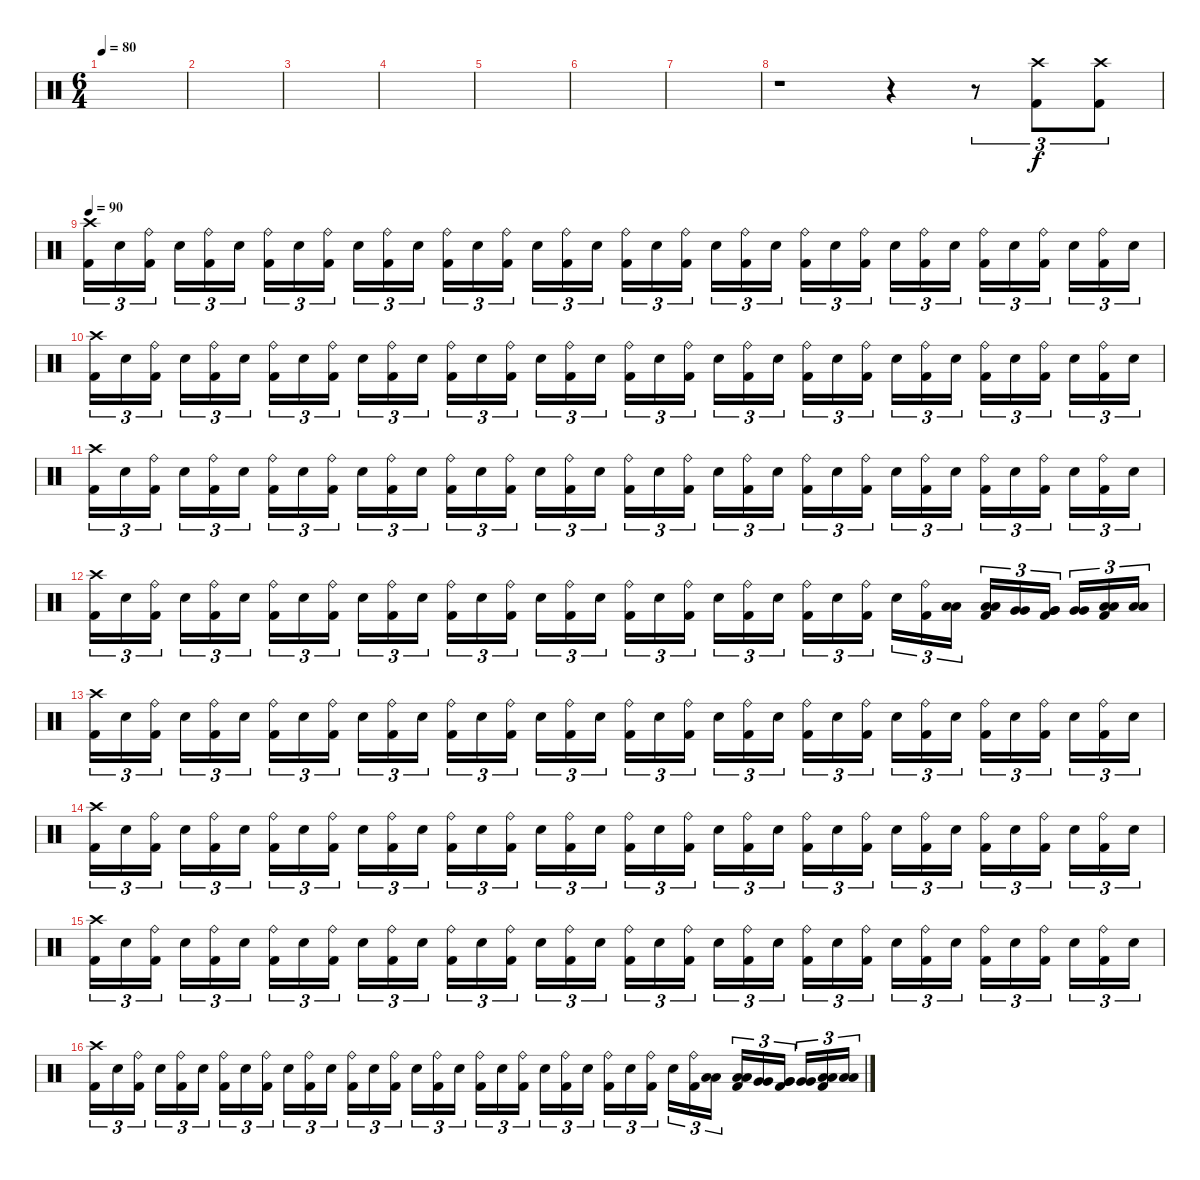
\track "" {instrument percussion}
\staff {score}
\articulation defaults
\ts (6 4)
\tempo 80
\clef neutral
\ks c
|
|
|
|
|
|
|
r.1 r.4 r.8{tu (3 2)} ("Crash high (hit)" "Kick (hit) 2").8{tu (3 2)} ("Crash high (hit)" "Kick (hit) 2").8{tu (3 2)} |
\tempo 90
("Crash high (hit)" "Kick (hit) 2").16{tu (3 2)} "Electric Snare (hit)".16{tu (3 2)} ("Ride (bell)" "Kick (hit) 2").16{tu (3 2)} "Electric Snare (hit)".16{tu (3 2)} ("Ride (bell)" "Kick (hit) 2").16{tu (3 2)} "Electric Snare (hit)".16{tu (3 2)} ("Ride (bell)" "Kick (hit) 2").16{tu (3 2)} "Electric Snare (hit)".16{tu (3 2)} ("Ride (bell)" "Kick (hit) 2").16{tu (3 2)} "Electric Snare (hit)".16{tu (3 2)} ("Ride (bell)" "Kick (hit) 2").16{tu (3 2)} "Electric Snare (hit)".16{tu (3 2)} ("Ride (bell)" "Kick (hit) 2").16{tu (3 2)} "Electric Snare (hit)".16{tu (3 2)} ("Ride (bell)" "Kick (hit) 2").16{tu (3 2)} "Electric Snare (hit)".16{tu (3 2)} ("Ride (bell)" "Kick (hit) 2").16{tu (3 2)} "Electric Snare (hit)".16{tu (3 2)} ("Ride (bell)" "Kick (hit) 2").16{tu (3 2)} "Electric Snare (hit)".16{tu (3 2)} ("Ride (bell)" "Kick (hit) 2").16{tu (3 2)} "Electric Snare (hit)".16{tu (3 2)} ("Ride (bell)" "Kick (hit) 2").16{tu (3 2)} "Electric Snare (hit)".16{tu (3 2)} ("Ride (bell)" "Kick (hit) 2").16{tu (3 2)} "Electric Snare (hit)".16{tu (3 2)} ("Ride (bell)" "Kick (hit) 2").16{tu (3 2)} "Electric Snare (hit)".16{tu (3 2)} ("Ride (bell)" "Kick (hit) 2").16{tu (3 2)} "Electric Snare (hit)".16{tu (3 2)} ("Ride (bell)" "Kick (hit) 2").16{tu (3 2)} "Electric Snare (hit)".16{tu (3 2)} ("Ride (bell)" "Kick (hit) 2").16{tu (3 2)} "Electric Snare (hit)".16{tu (3 2)} ("Ride (bell)" "Kick (hit) 2").16{tu (3 2)} "Electric Snare (hit)".16{tu (3 2)} |
("Crash high (hit)" "Kick (hit) 2").16{tu (3 2)} "Electric Snare (hit)".16{tu (3 2)} ("Ride (bell)" "Kick (hit) 2").16{tu (3 2)} "Electric Snare (hit)".16{tu (3 2)} ("Ride (bell)" "Kick (hit) 2").16{tu (3 2)} "Electric Snare (hit)".16{tu (3 2)} ("Ride (bell)" "Kick (hit) 2").16{tu (3 2)} "Electric Snare (hit)".16{tu (3 2)} ("Ride (bell)" "Kick (hit) 2").16{tu (3 2)} "Electric Snare (hit)".16{tu (3 2)} ("Ride (bell)" "Kick (hit) 2").16{tu (3 2)} "Electric Snare (hit)".16{tu (3 2)} ("Ride (bell)" "Kick (hit) 2").16{tu (3 2)} "Electric Snare (hit)".16{tu (3 2)} ("Ride (bell)" "Kick (hit) 2").16{tu (3 2)} "Electric Snare (hit)".16{tu (3 2)} ("Ride (bell)" "Kick (hit) 2").16{tu (3 2)} "Electric Snare (hit)".16{tu (3 2)} ("Ride (bell)" "Kick (hit) 2").16{tu (3 2)} "Electric Snare (hit)".16{tu (3 2)} ("Ride (bell)" "Kick (hit) 2").16{tu (3 2)} "Electric Snare (hit)".16{tu (3 2)} ("Ride (bell)" "Kick (hit) 2").16{tu (3 2)} "Electric Snare (hit)".16{tu (3 2)} ("Ride (bell)" "Kick (hit) 2").16{tu (3 2)} "Electric Snare (hit)".16{tu (3 2)} ("Ride (bell)" "Kick (hit) 2").16{tu (3 2)} "Electric Snare (hit)".16{tu (3 2)} ("Ride (bell)" "Kick (hit) 2").16{tu (3 2)} "Electric Snare (hit)".16{tu (3 2)} ("Ride (bell)" "Kick (hit) 2").16{tu (3 2)} "Electric Snare (hit)".16{tu (3 2)} ("Ride (bell)" "Kick (hit) 2").16{tu (3 2)} "Electric Snare (hit)".16{tu (3 2)} ("Ride (bell)" "Kick (hit) 2").16{tu (3 2)} "Electric Snare (hit)".16{tu (3 2)} |
("Crash high (hit)" "Kick (hit) 2").16{tu (3 2)} "Electric Snare (hit)".16{tu (3 2)} ("Ride (bell)" "Kick (hit) 2").16{tu (3 2)} "Electric Snare (hit)".16{tu (3 2)} ("Ride (bell)" "Kick (hit) 2").16{tu (3 2)} "Electric Snare (hit)".16{tu (3 2)} ("Ride (bell)" "Kick (hit) 2").16{tu (3 2)} "Electric Snare (hit)".16{tu (3 2)} ("Ride (bell)" "Kick (hit) 2").16{tu (3 2)} "Electric Snare (hit)".16{tu (3 2)} ("Ride (bell)" "Kick (hit) 2").16{tu (3 2)} "Electric Snare (hit)".16{tu (3 2)} ("Ride (bell)" "Kick (hit) 2").16{tu (3 2)} "Electric Snare (hit)".16{tu (3 2)} ("Ride (bell)" "Kick (hit) 2").16{tu (3 2)} "Electric Snare (hit)".16{tu (3 2)} ("Ride (bell)" "Kick (hit) 2").16{tu (3 2)} "Electric Snare (hit)".16{tu (3 2)} ("Ride (bell)" "Kick (hit) 2").16{tu (3 2)} "Electric Snare (hit)".16{tu (3 2)} ("Ride (bell)" "Kick (hit) 2").16{tu (3 2)} "Electric Snare (hit)".16{tu (3 2)} ("Ride (bell)" "Kick (hit) 2").16{tu (3 2)} "Electric Snare (hit)".16{tu (3 2)} ("Ride (bell)" "Kick (hit) 2").16{tu (3 2)} "Electric Snare (hit)".16{tu (3 2)} ("Ride (bell)" "Kick (hit) 2").16{tu (3 2)} "Electric Snare (hit)".16{tu (3 2)} ("Ride (bell)" "Kick (hit) 2").16{tu (3 2)} "Electric Snare (hit)".16{tu (3 2)} ("Ride (bell)" "Kick (hit) 2").16{tu (3 2)} "Electric Snare (hit)".16{tu (3 2)} ("Ride (bell)" "Kick (hit) 2").16{tu (3 2)} "Electric Snare (hit)".16{tu (3 2)} ("Ride (bell)" "Kick (hit) 2").16{tu (3 2)} "Electric Snare (hit)".16{tu (3 2)} |
("Crash high (hit)" "Kick (hit) 2").16{tu (3 2)} "Electric Snare (hit)".16{tu (3 2)} ("Ride (bell)" "Kick (hit) 2").16{tu (3 2)} "Electric Snare (hit)".16{tu (3 2)} ("Ride (bell)" "Kick (hit) 2").16{tu (3 2)} "Electric Snare (hit)".16{tu (3 2)} ("Ride (bell)" "Kick (hit) 2").16{tu (3 2)} "Electric Snare (hit)".16{tu (3 2)} ("Ride (bell)" "Kick (hit) 2").16{tu (3 2)} "Electric Snare (hit)".16{tu (3 2)} ("Ride (bell)" "Kick (hit) 2").16{tu (3 2)} "Electric Snare (hit)".16{tu (3 2)} ("Ride (bell)" "Kick (hit) 2").16{tu (3 2)} "Electric Snare (hit)".16{tu (3 2)} ("Ride (bell)" "Kick (hit) 2").16{tu (3 2)} "Electric Snare (hit)".16{tu (3 2)} ("Ride (bell)" "Kick (hit) 2").16{tu (3 2)} "Electric Snare (hit)".16{tu (3 2)} ("Ride (bell)" "Kick (hit) 2").16{tu (3 2)} "Electric Snare (hit)".16{tu (3 2)} ("Ride (bell)" "Kick (hit) 2").16{tu (3 2)} "Electric Snare (hit)".16{tu (3 2)} ("Ride (bell)" "Kick (hit) 2").16{tu (3 2)} "Electric Snare (hit)".16{tu (3 2)} ("Ride (bell)" "Kick (hit) 2").16{tu (3 2)} "Electric Snare (hit)".16{tu (3 2)} ("Ride (bell)" "Kick (hit) 2").16{tu (3 2)} "Electric Snare (hit)".16{tu (3 2)} ("Ride (bell)" "Kick (hit) 2").16{tu (3 2)} ("Low Tom (hit)" "Low Tom (hit)").16{tu (3 2)} ("Low Tom (hit)" "Low Tom (hit)" "Kick (hit) 2").16{tu (3 2)} ("Very Low Tom (hit)" "Very Low Tom (hit)").16{tu (3 2)} ("Very Low Tom (hit)" "Very Low Tom (hit)" "Kick (hit) 2").16{tu (3 2)} ("Very Low Tom (hit)" "Very Low Tom (hit)").16{tu (3 2)} ("Low Floor Tom (hit)" "Low Floor Tom (hit)" "Kick (hit) 2").16{tu (3 2)} ("Low Floor Tom (hit)" "Low Floor Tom (hit)").16{tu (3 2)} |
("Crash high (hit)" "Kick (hit) 2").16{tu (3 2)} "Electric Snare (hit)".16{tu (3 2)} ("Ride (bell)" "Kick (hit) 2").16{tu (3 2)} "Electric Snare (hit)".16{tu (3 2)} ("Ride (bell)" "Kick (hit) 2").16{tu (3 2)} "Electric Snare (hit)".16{tu (3 2)} ("Ride (bell)" "Kick (hit) 2").16{tu (3 2)} "Electric Snare (hit)".16{tu (3 2)} ("Ride (bell)" "Kick (hit) 2").16{tu (3 2)} "Electric Snare (hit)".16{tu (3 2)} ("Ride (bell)" "Kick (hit) 2").16{tu (3 2)} "Electric Snare (hit)".16{tu (3 2)} ("Ride (bell)" "Kick (hit) 2").16{tu (3 2)} "Electric Snare (hit)".16{tu (3 2)} ("Ride (bell)" "Kick (hit) 2").16{tu (3 2)} "Electric Snare (hit)".16{tu (3 2)} ("Ride (bell)" "Kick (hit) 2").16{tu (3 2)} "Electric Snare (hit)".16{tu (3 2)} ("Ride (bell)" "Kick (hit) 2").16{tu (3 2)} "Electric Snare (hit)".16{tu (3 2)} ("Ride (bell)" "Kick (hit) 2").16{tu (3 2)} "Electric Snare (hit)".16{tu (3 2)} ("Ride (bell)" "Kick (hit) 2").16{tu (3 2)} "Electric Snare (hit)".16{tu (3 2)} ("Ride (bell)" "Kick (hit) 2").16{tu (3 2)} "Electric Snare (hit)".16{tu (3 2)} ("Ride (bell)" "Kick (hit) 2").16{tu (3 2)} "Electric Snare (hit)".16{tu (3 2)} ("Ride (bell)" "Kick (hit) 2").16{tu (3 2)} "Electric Snare (hit)".16{tu (3 2)} ("Ride (bell)" "Kick (hit) 2").16{tu (3 2)} "Electric Snare (hit)".16{tu (3 2)} ("Ride (bell)" "Kick (hit) 2").16{tu (3 2)} "Electric Snare (hit)".16{tu (3 2)} ("Ride (bell)" "Kick (hit) 2").16{tu (3 2)} "Electric Snare (hit)".16{tu (3 2)} |
("Crash high (hit)" "Kick (hit) 2").16{tu (3 2)} "Electric Snare (hit)".16{tu (3 2)} ("Ride (bell)" "Kick (hit) 2").16{tu (3 2)} "Electric Snare (hit)".16{tu (3 2)} ("Ride (bell)" "Kick (hit) 2").16{tu (3 2)} "Electric Snare (hit)".16{tu (3 2)} ("Ride (bell)" "Kick (hit) 2").16{tu (3 2)} "Electric Snare (hit)".16{tu (3 2)} ("Ride (bell)" "Kick (hit) 2").16{tu (3 2)} "Electric Snare (hit)".16{tu (3 2)} ("Ride (bell)" "Kick (hit) 2").16{tu (3 2)} "Electric Snare (hit)".16{tu (3 2)} ("Ride (bell)" "Kick (hit) 2").16{tu (3 2)} "Electric Snare (hit)".16{tu (3 2)} ("Ride (bell)" "Kick (hit) 2").16{tu (3 2)} "Electric Snare (hit)".16{tu (3 2)} ("Ride (bell)" "Kick (hit) 2").16{tu (3 2)} "Electric Snare (hit)".16{tu (3 2)} ("Ride (bell)" "Kick (hit) 2").16{tu (3 2)} "Electric Snare (hit)".16{tu (3 2)} ("Ride (bell)" "Kick (hit) 2").16{tu (3 2)} "Electric Snare (hit)".16{tu (3 2)} ("Ride (bell)" "Kick (hit) 2").16{tu (3 2)} "Electric Snare (hit)".16{tu (3 2)} ("Ride (bell)" "Kick (hit) 2").16{tu (3 2)} "Electric Snare (hit)".16{tu (3 2)} ("Ride (bell)" "Kick (hit) 2").16{tu (3 2)} "Electric Snare (hit)".16{tu (3 2)} ("Ride (bell)" "Kick (hit) 2").16{tu (3 2)} "Electric Snare (hit)".16{tu (3 2)} ("Ride (bell)" "Kick (hit) 2").16{tu (3 2)} "Electric Snare (hit)".16{tu (3 2)} ("Ride (bell)" "Kick (hit) 2").16{tu (3 2)} "Electric Snare (hit)".16{tu (3 2)} ("Ride (bell)" "Kick (hit) 2").16{tu (3 2)} "Electric Snare (hit)".16{tu (3 2)} |
("Crash high (hit)" "Kick (hit) 2").16{tu (3 2)} "Electric Snare (hit)".16{tu (3 2)} ("Ride (bell)" "Kick (hit) 2").16{tu (3 2)} "Electric Snare (hit)".16{tu (3 2)} ("Ride (bell)" "Kick (hit) 2").16{tu (3 2)} "Electric Snare (hit)".16{tu (3 2)} ("Ride (bell)" "Kick (hit) 2").16{tu (3 2)} "Electric Snare (hit)".16{tu (3 2)} ("Ride (bell)" "Kick (hit) 2").16{tu (3 2)} "Electric Snare (hit)".16{tu (3 2)} ("Ride (bell)" "Kick (hit) 2").16{tu (3 2)} "Electric Snare (hit)".16{tu (3 2)} ("Ride (bell)" "Kick (hit) 2").16{tu (3 2)} "Electric Snare (hit)".16{tu (3 2)} ("Ride (bell)" "Kick (hit) 2").16{tu (3 2)} "Electric Snare (hit)".16{tu (3 2)} ("Ride (bell)" "Kick (hit) 2").16{tu (3 2)} "Electric Snare (hit)".16{tu (3 2)} ("Ride (bell)" "Kick (hit) 2").16{tu (3 2)} "Electric Snare (hit)".16{tu (3 2)} ("Ride (bell)" "Kick (hit) 2").16{tu (3 2)} "Electric Snare (hit)".16{tu (3 2)} ("Ride (bell)" "Kick (hit) 2").16{tu (3 2)} "Electric Snare (hit)".16{tu (3 2)} ("Ride (bell)" "Kick (hit) 2").16{tu (3 2)} "Electric Snare (hit)".16{tu (3 2)} ("Ride (bell)" "Kick (hit) 2").16{tu (3 2)} "Electric Snare (hit)".16{tu (3 2)} ("Ride (bell)" "Kick (hit) 2").16{tu (3 2)} "Electric Snare (hit)".16{tu (3 2)} ("Ride (bell)" "Kick (hit) 2").16{tu (3 2)} "Electric Snare (hit)".16{tu (3 2)} ("Ride (bell)" "Kick (hit) 2").16{tu (3 2)} "Electric Snare (hit)".16{tu (3 2)} ("Ride (bell)" "Kick (hit) 2").16{tu (3 2)} "Electric Snare (hit)".16{tu (3 2)} |
("Crash high (hit)" "Kick (hit) 2").16{tu (3 2)} "Electric Snare (hit)".16{tu (3 2)} ("Ride (bell)" "Kick (hit) 2").16{tu (3 2)} "Electric Snare (hit)".16{tu (3 2)} ("Ride (bell)" "Kick (hit) 2").16{tu (3 2)} "Electric Snare (hit)".16{tu (3 2)} ("Ride (bell)" "Kick (hit) 2").16{tu (3 2)} "Electric Snare (hit)".16{tu (3 2)} ("Ride (bell)" "Kick (hit) 2").16{tu (3 2)} "Electric Snare (hit)".16{tu (3 2)} ("Ride (bell)" "Kick (hit) 2").16{tu (3 2)} "Electric Snare (hit)".16{tu (3 2)} ("Ride (bell)" "Kick (hit) 2").16{tu (3 2)} "Electric Snare (hit)".16{tu (3 2)} ("Ride (bell)" "Kick (hit) 2").16{tu (3 2)} "Electric Snare (hit)".16{tu (3 2)} ("Ride (bell)" "Kick (hit) 2").16{tu (3 2)} "Electric Snare (hit)".16{tu (3 2)} ("Ride (bell)" "Kick (hit) 2").16{tu (3 2)} "Electric Snare (hit)".16{tu (3 2)} ("Ride (bell)" "Kick (hit) 2").16{tu (3 2)} "Electric Snare (hit)".16{tu (3 2)} ("Ride (bell)" "Kick (hit) 2").16{tu (3 2)} "Electric Snare (hit)".16{tu (3 2)} ("Ride (bell)" "Kick (hit) 2").16{tu (3 2)} "Electric Snare (hit)".16{tu (3 2)} ("Ride (bell)" "Kick (hit) 2").16{tu (3 2)} "Electric Snare (hit)".16{tu (3 2)} ("Ride (bell)" "Kick (hit) 2").16{tu (3 2)} ("Low Tom (hit)" "Low Tom (hit)").16{tu (3 2)} ("Low Tom (hit)" "Low Tom (hit)" "Kick (hit) 2").16{tu (3 2)} ("Very Low Tom (hit)" "Very Low Tom (hit)").16{tu (3 2)} ("Very Low Tom (hit)" "Very Low Tom (hit)" "Kick (hit) 2").16{tu (3 2)} ("Very Low Tom (hit)" "Very Low Tom (hit)").16{tu (3 2)} ("Low Floor Tom (hit)" "Low Floor Tom (hit)" "Kick (hit) 2").16{tu (3 2)} ("Low Floor Tom (hit)" "Low Floor Tom (hit)").16{tu (3 2)}
